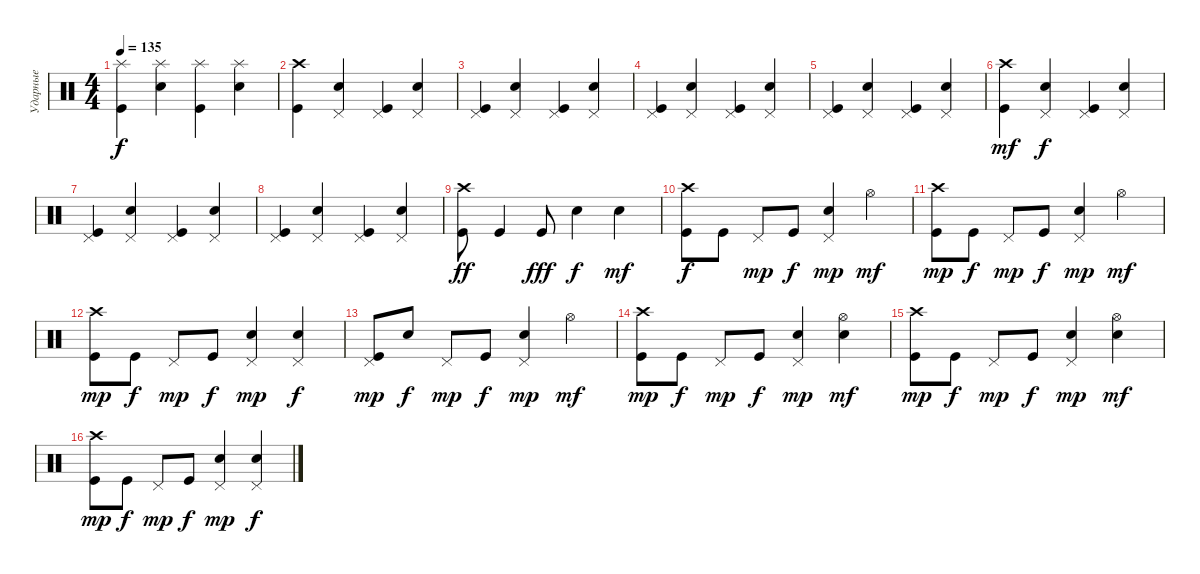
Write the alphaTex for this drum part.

\track ("Ударные" "Ударные") {instrument percussion}
\staff {score}
\articulation defaults
\ts (4 4)
\tempo 135
\clef neutral
\ks c
("Splash (hit)" "Kick (hit)").4{dy f} ("Splash (hit)" "Snare (hit) 2").4 ("Splash (hit)" "Kick (hit)").4 ("Splash (hit)" "Snare (hit) 2").4 |
("Crash high (hit)" "Kick (hit)").4 ("Pedal Hi-Hat (hit)" "Snare (hit) 2").4 ("Pedal Hi-Hat (hit)" "Kick (hit)").4 ("Pedal Hi-Hat (hit)" "Snare (hit) 2").4 |
("Pedal Hi-Hat (hit)" "Kick (hit)").4 ("Pedal Hi-Hat (hit)" "Snare (hit) 2").4 ("Pedal Hi-Hat (hit)" "Kick (hit)").4 ("Pedal Hi-Hat (hit)" "Snare (hit) 2").4 |
("Pedal Hi-Hat (hit)" "Kick (hit)").4 ("Pedal Hi-Hat (hit)" "Snare (hit) 2").4 ("Pedal Hi-Hat (hit)" "Kick (hit)").4 ("Pedal Hi-Hat (hit)" "Snare (hit) 2").4 |
("Pedal Hi-Hat (hit)" "Kick (hit)").4 ("Pedal Hi-Hat (hit)" "Snare (hit) 2").4 ("Pedal Hi-Hat (hit)" "Kick (hit)").4 ("Pedal Hi-Hat (hit)" "Snare (hit) 2").4 |
("Crash high (hit)" "Kick (hit)").4{dy mf} ("Pedal Hi-Hat (hit)" "Snare (hit) 2").4{dy f} ("Pedal Hi-Hat (hit)" "Kick (hit)").4 ("Pedal Hi-Hat (hit)" "Snare (hit) 2").4 |
("Pedal Hi-Hat (hit)" "Kick (hit)").4 ("Pedal Hi-Hat (hit)" "Snare (hit) 2").4 ("Pedal Hi-Hat (hit)" "Kick (hit)").4 ("Pedal Hi-Hat (hit)" "Snare (hit) 2").4 |
("Pedal Hi-Hat (hit)" "Kick (hit)").4 ("Pedal Hi-Hat (hit)" "Snare (hit) 2").4 ("Pedal Hi-Hat (hit)" "Kick (hit)").4 ("Pedal Hi-Hat (hit)" "Snare (hit) 2").4 |
("Crash high (hit)" "Kick (hit)").8{dy ff} "Kick (hit)".4 "Kick (hit)".8{dy fff} "Electric Snare (hit)".4{dy f} "Snare (hit) 2".4{dy mf} |
("Crash high (hit)" "Kick (hit)").8{dy f} "Kick (hit)".8 "Pedal Hi-Hat (hit)".8{dy mp} "Kick (hit)".8{dy f} ("Pedal Hi-Hat (hit)" "Snare (hit) 2").4{dy mp} "Hi-Hat (open)".4{dy mf} |
("Crash high (hit)" "Kick (hit)").8{dy mp} "Kick (hit)".8{dy f} "Pedal Hi-Hat (hit)".8{dy mp} "Kick (hit)".8{dy f} ("Pedal Hi-Hat (hit)" "Snare (hit) 2").4{dy mp} "Hi-Hat (open)".4{dy mf} |
("Crash high (hit)" "Kick (hit)").8{dy mp} "Kick (hit)".8{dy f} "Pedal Hi-Hat (hit)".8{dy mp} "Kick (hit)".8{dy f} ("Pedal Hi-Hat (hit)" "Snare (hit) 2").4{dy mp} ("Pedal Hi-Hat (hit)" "Snare (hit) 2").4{dy f} |
("Pedal Hi-Hat (hit)" "Kick (hit)").8{dy mp} "Snare (hit) 2".8{dy f} "Pedal Hi-Hat (hit)".8{dy mp} "Kick (hit)".8{dy f} ("Pedal Hi-Hat (hit)" "Snare (hit) 2").4{dy mp} "Hi-Hat (open)".4{dy mf} |
("Crash high (hit)" "Kick (hit)").8{dy mp} "Kick (hit)".8{dy f} "Pedal Hi-Hat (hit)".8{dy mp} "Kick (hit)".8{dy f} ("Pedal Hi-Hat (hit)" "Snare (hit) 2").4{dy mp} ("Hi-Hat (open)" "Snare (hit) 2").4{dy mf} |
("Crash high (hit)" "Kick (hit)").8{dy mp} "Kick (hit)".8{dy f} "Pedal Hi-Hat (hit)".8{dy mp} "Kick (hit)".8{dy f} ("Pedal Hi-Hat (hit)" "Snare (hit) 2").4{dy mp} ("Hi-Hat (open)" "Snare (hit) 2").4{dy mf} |
("Crash high (hit)" "Kick (hit)").8{dy mp} "Kick (hit)".8{dy f} "Pedal Hi-Hat (hit)".8{dy mp} "Kick (hit)".8{dy f} ("Pedal Hi-Hat (hit)" "Snare (hit) 2").4{dy mp} ("Pedal Hi-Hat (hit)" "Snare (hit) 2").4{dy f}
